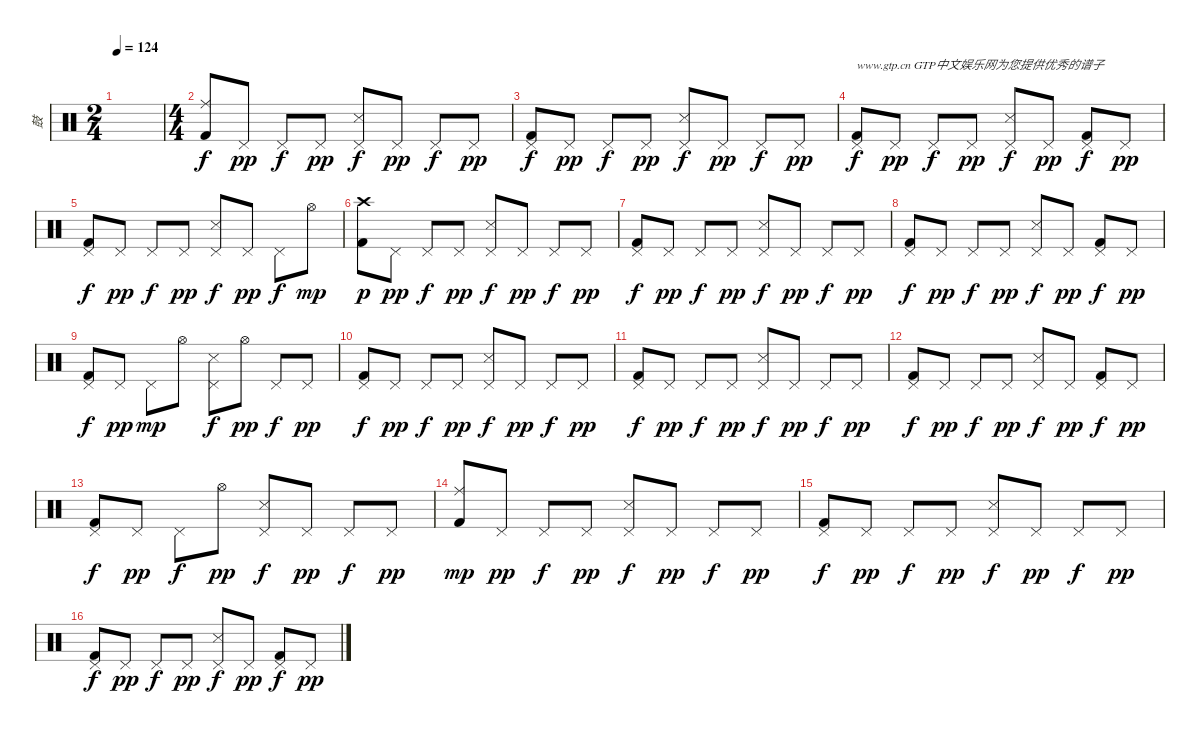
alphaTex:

\track ("鼓" "鼓") {instrument percussion}
\staff {score}
\articulation defaults
\ts (2 4)
\tempo 124
\clef neutral
\ks c
|
\ts (4 4)
("Kick (hit) 2" "Ride (middle)").8 "Pedal Hi-Hat (hit)".8{dy pp} "Pedal Hi-Hat (hit)".8{dy f} "Pedal Hi-Hat (hit)".8{dy pp} ("Snare (side stick) 3" "Pedal Hi-Hat (hit)").8{dy f} "Pedal Hi-Hat (hit)".8{dy pp} "Pedal Hi-Hat (hit)".8{dy f} "Pedal Hi-Hat (hit)".8{dy pp} |
("Kick (hit) 2" "Pedal Hi-Hat (hit)").8{dy f} "Pedal Hi-Hat (hit)".8{dy pp} "Pedal Hi-Hat (hit)".8{dy f} "Pedal Hi-Hat (hit)".8{dy pp} ("Snare (side stick) 3" "Pedal Hi-Hat (hit)").8{dy f} "Pedal Hi-Hat (hit)".8{dy pp} "Pedal Hi-Hat (hit)".8{dy f} "Pedal Hi-Hat (hit)".8{dy pp} |
("Kick (hit) 2" "Pedal Hi-Hat (hit)").8{txt "www.gtp.cn GTP中文娱乐网为您提供优秀的谱子" dy f} "Pedal Hi-Hat (hit)".8{dy pp} "Pedal Hi-Hat (hit)".8{dy f} "Pedal Hi-Hat (hit)".8{dy pp} ("Snare (side stick) 3" "Pedal Hi-Hat (hit)").8{dy f} "Pedal Hi-Hat (hit)".8{dy pp} ("Kick (hit) 2" "Pedal Hi-Hat (hit)").8{dy f} "Pedal Hi-Hat (hit)".8{dy pp} |
("Kick (hit) 2" "Pedal Hi-Hat (hit)").8{dy f} "Pedal Hi-Hat (hit)".8{dy pp} "Pedal Hi-Hat (hit)".8{dy f} "Pedal Hi-Hat (hit)".8{dy pp} ("Snare (side stick) 3" "Pedal Hi-Hat (hit)").8{dy f} "Pedal Hi-Hat (hit)".8{dy pp} "Pedal Hi-Hat (hit)".8{dy f} "Hi-Hat (open)".8{dy mp} |
("Kick (hit) 2" "Crash high (hit)").8{dy p} "Pedal Hi-Hat (hit)".8{dy pp} "Pedal Hi-Hat (hit)".8{dy f} "Pedal Hi-Hat (hit)".8{dy pp} ("Snare (side stick) 3" "Pedal Hi-Hat (hit)").8{dy f} "Pedal Hi-Hat (hit)".8{dy pp} "Pedal Hi-Hat (hit)".8{dy f} "Pedal Hi-Hat (hit)".8{dy pp} |
("Kick (hit) 2" "Pedal Hi-Hat (hit)").8{dy f} "Pedal Hi-Hat (hit)".8{dy pp} "Pedal Hi-Hat (hit)".8{dy f} "Pedal Hi-Hat (hit)".8{dy pp} ("Snare (side stick) 3" "Pedal Hi-Hat (hit)").8{dy f} "Pedal Hi-Hat (hit)".8{dy pp} "Pedal Hi-Hat (hit)".8{dy f} "Pedal Hi-Hat (hit)".8{dy pp} |
("Kick (hit) 2" "Pedal Hi-Hat (hit)").8{dy f} "Pedal Hi-Hat (hit)".8{dy pp} "Pedal Hi-Hat (hit)".8{dy f} "Pedal Hi-Hat (hit)".8{dy pp} ("Snare (side stick) 3" "Pedal Hi-Hat (hit)").8{dy f} "Pedal Hi-Hat (hit)".8{dy pp} ("Kick (hit) 2" "Pedal Hi-Hat (hit)").8{dy f} "Pedal Hi-Hat (hit)".8{dy pp} |
("Kick (hit) 2" "Pedal Hi-Hat (hit)").8{dy f} "Pedal Hi-Hat (hit)".8{dy pp} "Pedal Hi-Hat (hit)".8{dy mp} "Hi-Hat (open)".8 ("Snare (side stick) 3" "Pedal Hi-Hat (hit)").8{dy f} "Hi-Hat (open)".8{dy pp} "Pedal Hi-Hat (hit)".8{dy f} "Pedal Hi-Hat (hit)".8{dy pp} |
("Kick (hit) 2" "Pedal Hi-Hat (hit)").8{dy f} "Pedal Hi-Hat (hit)".8{dy pp} "Pedal Hi-Hat (hit)".8{dy f} "Pedal Hi-Hat (hit)".8{dy pp} ("Snare (side stick) 3" "Pedal Hi-Hat (hit)").8{dy f} "Pedal Hi-Hat (hit)".8{dy pp} "Pedal Hi-Hat (hit)".8{dy f} "Pedal Hi-Hat (hit)".8{dy pp} |
("Kick (hit) 2" "Pedal Hi-Hat (hit)").8{dy f} "Pedal Hi-Hat (hit)".8{dy pp} "Pedal Hi-Hat (hit)".8{dy f} "Pedal Hi-Hat (hit)".8{dy pp} ("Snare (side stick) 3" "Pedal Hi-Hat (hit)").8{dy f} "Pedal Hi-Hat (hit)".8{dy pp} "Pedal Hi-Hat (hit)".8{dy f} "Pedal Hi-Hat (hit)".8{dy pp} |
("Kick (hit) 2" "Pedal Hi-Hat (hit)").8{dy f} "Pedal Hi-Hat (hit)".8{dy pp} "Pedal Hi-Hat (hit)".8{dy f} "Pedal Hi-Hat (hit)".8{dy pp} ("Snare (side stick) 3" "Pedal Hi-Hat (hit)").8{dy f} "Pedal Hi-Hat (hit)".8{dy pp} ("Kick (hit) 2" "Pedal Hi-Hat (hit)").8{dy f} "Pedal Hi-Hat (hit)".8{dy pp} |
("Kick (hit) 2" "Pedal Hi-Hat (hit)").8{dy f} "Pedal Hi-Hat (hit)".8{dy pp} "Pedal Hi-Hat (hit)".8{dy f} "Hi-Hat (open)".8{dy pp} ("Snare (side stick) 3" "Pedal Hi-Hat (hit)").8{dy f} "Pedal Hi-Hat (hit)".8{dy pp} "Pedal Hi-Hat (hit)".8{dy f} "Pedal Hi-Hat (hit)".8{dy pp} |
("Kick (hit) 2" "Ride (middle)").8{dy mp} "Pedal Hi-Hat (hit)".8{dy pp} "Pedal Hi-Hat (hit)".8{dy f} "Pedal Hi-Hat (hit)".8{dy pp} ("Snare (side stick) 3" "Pedal Hi-Hat (hit)").8{dy f} "Pedal Hi-Hat (hit)".8{dy pp} "Pedal Hi-Hat (hit)".8{dy f} "Pedal Hi-Hat (hit)".8{dy pp} |
("Kick (hit) 2" "Pedal Hi-Hat (hit)").8{dy f} "Pedal Hi-Hat (hit)".8{dy pp} "Pedal Hi-Hat (hit)".8{dy f} "Pedal Hi-Hat (hit)".8{dy pp} ("Snare (side stick) 3" "Pedal Hi-Hat (hit)").8{dy f} "Pedal Hi-Hat (hit)".8{dy pp} "Pedal Hi-Hat (hit)".8{dy f} "Pedal Hi-Hat (hit)".8{dy pp} |
("Kick (hit) 2" "Pedal Hi-Hat (hit)").8{dy f} "Pedal Hi-Hat (hit)".8{dy pp} "Pedal Hi-Hat (hit)".8{dy f} "Pedal Hi-Hat (hit)".8{dy pp} ("Snare (side stick) 3" "Pedal Hi-Hat (hit)").8{dy f} "Pedal Hi-Hat (hit)".8{dy pp} ("Kick (hit) 2" "Pedal Hi-Hat (hit)").8{dy f} "Pedal Hi-Hat (hit)".8{dy pp}
